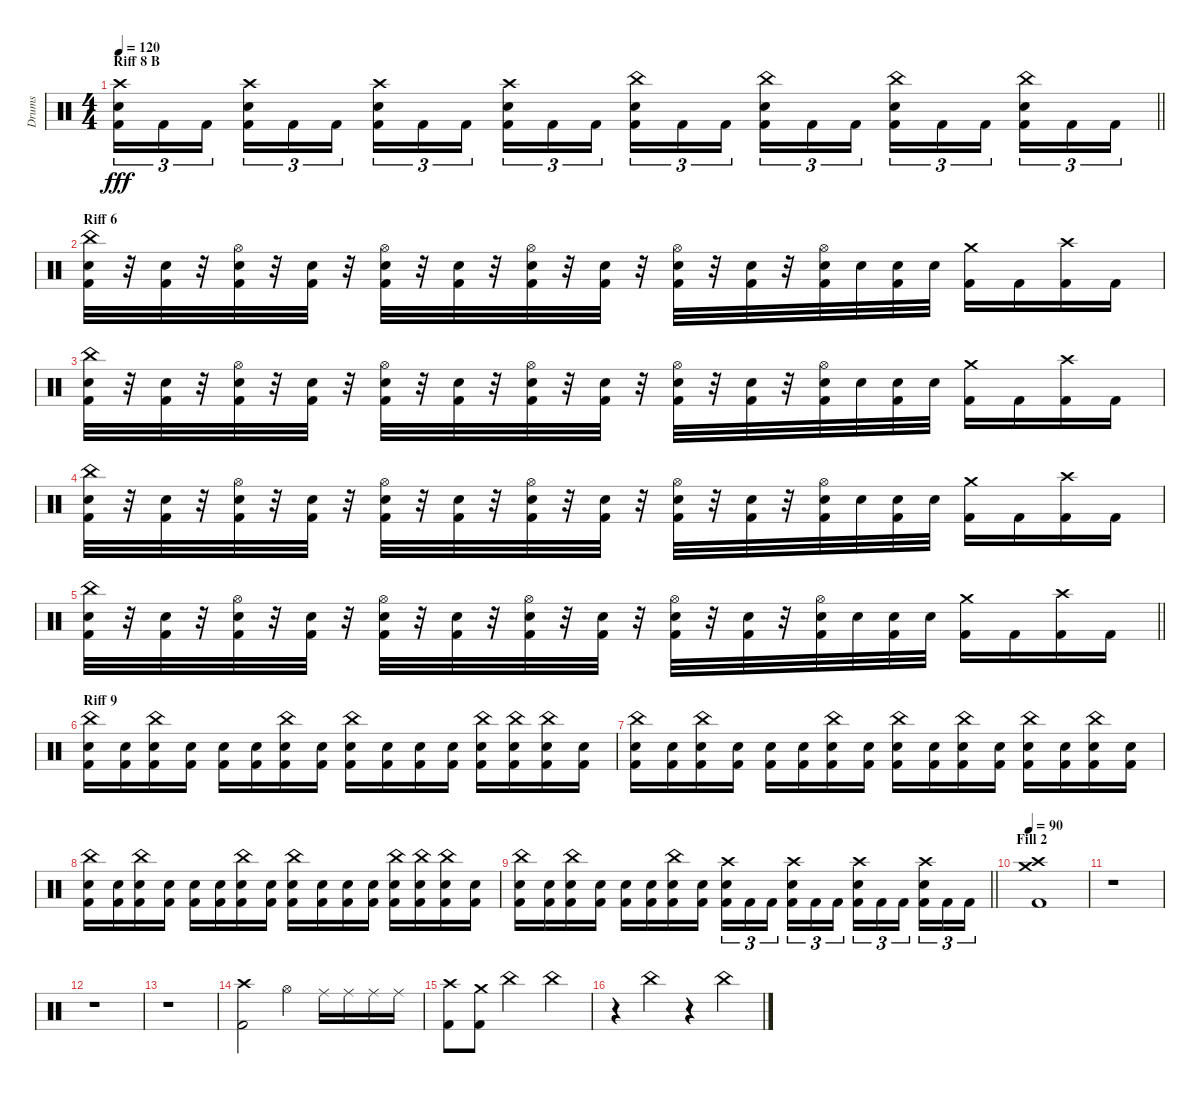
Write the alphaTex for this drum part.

\track ("Drums" "Drums") {instrument percussion}
\staff {score}
\articulation defaults
\ts (4 4)
\section ("" "Riff 8 B")
\tempo 120
\clef neutral
\barLineRight lightlight
\ks c
("Crash high (hit)" "Electric Snare (hit)" "Kick (hit) 2").16{tu (3 2) dy fff} "Kick (hit) 2".16{tu (3 2)} "Kick (hit) 2".16{tu (3 2)} ("Crash high (hit)" "Electric Snare (hit)" "Kick (hit) 2").16{tu (3 2)} "Kick (hit) 2".16{tu (3 2)} "Kick (hit) 2".16{tu (3 2)} ("Crash high (hit)" "Electric Snare (hit)" "Kick (hit) 2").16{tu (3 2)} "Kick (hit) 2".16{tu (3 2)} "Kick (hit) 2".16{tu (3 2)} ("Crash high (hit)" "Electric Snare (hit)" "Kick (hit) 2").16{tu (3 2)} "Kick (hit) 2".16{tu (3 2)} "Kick (hit) 2".16{tu (3 2)} ("China (hit)" "Electric Snare (hit)" "Kick (hit) 2").16{tu (3 2)} "Kick (hit) 2".16{tu (3 2)} "Kick (hit) 2".16{tu (3 2)} ("China (hit)" "Electric Snare (hit)" "Kick (hit) 2").16{tu (3 2)} "Kick (hit) 2".16{tu (3 2)} "Kick (hit) 2".16{tu (3 2)} ("China (hit)" "Electric Snare (hit)" "Kick (hit) 2").16{tu (3 2)} "Kick (hit) 2".16{tu (3 2)} "Kick (hit) 2".16{tu (3 2)} ("China (hit)" "Electric Snare (hit)" "Kick (hit) 2").16{tu (3 2)} "Kick (hit) 2".16{tu (3 2)} "Kick (hit) 2".16{tu (3 2)} |
\section ("" "Riff 6")
("China (hit)" "Electric Snare (hit)" "Kick (hit) 2").32 r.32 ("Electric Snare (hit)" "Kick (hit) 2").32 r.32 ("Hi-Hat (open)" "Electric Snare (hit)" "Kick (hit) 2").32 r.32 ("Electric Snare (hit)" "Kick (hit) 2").32 r.32 ("Hi-Hat (open)" "Electric Snare (hit)" "Kick (hit) 2").32 r.32 ("Electric Snare (hit)" "Kick (hit) 2").32 r.32 ("Hi-Hat (open)" "Electric Snare (hit)" "Kick (hit) 2").32 r.32 ("Electric Snare (hit)" "Kick (hit) 2").32 r.32 ("Hi-Hat (open)" "Electric Snare (hit)" "Kick (hit) 2").32 r.32 ("Electric Snare (hit)" "Kick (hit) 2").32 r.32 ("Hi-Hat (open)" "Electric Snare (hit)" "Kick (hit) 2").32 "Electric Snare (hit)".32 ("Electric Snare (hit)" "Kick (hit) 2").32 "Electric Snare (hit)".32 ("Crash medium (hit)" "Kick (hit) 2").16 "Kick (hit) 2".16 ("Crash high (hit)" "Kick (hit) 2").16 "Kick (hit) 2".16 |
("China (hit)" "Electric Snare (hit)" "Kick (hit) 2").32 r.32 ("Electric Snare (hit)" "Kick (hit) 2").32 r.32 ("Hi-Hat (open)" "Electric Snare (hit)" "Kick (hit) 2").32 r.32 ("Electric Snare (hit)" "Kick (hit) 2").32 r.32 ("Hi-Hat (open)" "Electric Snare (hit)" "Kick (hit) 2").32 r.32 ("Electric Snare (hit)" "Kick (hit) 2").32 r.32 ("Hi-Hat (open)" "Electric Snare (hit)" "Kick (hit) 2").32 r.32 ("Electric Snare (hit)" "Kick (hit) 2").32 r.32 ("Hi-Hat (open)" "Electric Snare (hit)" "Kick (hit) 2").32 r.32 ("Electric Snare (hit)" "Kick (hit) 2").32 r.32 ("Hi-Hat (open)" "Electric Snare (hit)" "Kick (hit) 2").32 "Electric Snare (hit)".32 ("Electric Snare (hit)" "Kick (hit) 2").32 "Electric Snare (hit)".32 ("Crash medium (hit)" "Kick (hit) 2").16 "Kick (hit) 2".16 ("Crash high (hit)" "Kick (hit) 2").16 "Kick (hit) 2".16 |
("China (hit)" "Electric Snare (hit)" "Kick (hit) 2").32 r.32 ("Electric Snare (hit)" "Kick (hit) 2").32 r.32 ("Hi-Hat (open)" "Electric Snare (hit)" "Kick (hit) 2").32 r.32 ("Electric Snare (hit)" "Kick (hit) 2").32 r.32 ("Hi-Hat (open)" "Electric Snare (hit)" "Kick (hit) 2").32 r.32 ("Electric Snare (hit)" "Kick (hit) 2").32 r.32 ("Hi-Hat (open)" "Electric Snare (hit)" "Kick (hit) 2").32 r.32 ("Electric Snare (hit)" "Kick (hit) 2").32 r.32 ("Hi-Hat (open)" "Electric Snare (hit)" "Kick (hit) 2").32 r.32 ("Electric Snare (hit)" "Kick (hit) 2").32 r.32 ("Hi-Hat (open)" "Electric Snare (hit)" "Kick (hit) 2").32 "Electric Snare (hit)".32 ("Electric Snare (hit)" "Kick (hit) 2").32 "Electric Snare (hit)".32 ("Crash medium (hit)" "Kick (hit) 2").16 "Kick (hit) 2".16 ("Crash high (hit)" "Kick (hit) 2").16 "Kick (hit) 2".16 |
\barLineRight lightlight
("China (hit)" "Electric Snare (hit)" "Kick (hit) 2").32 r.32 ("Electric Snare (hit)" "Kick (hit) 2").32 r.32 ("Hi-Hat (open)" "Electric Snare (hit)" "Kick (hit) 2").32 r.32 ("Electric Snare (hit)" "Kick (hit) 2").32 r.32 ("Hi-Hat (open)" "Electric Snare (hit)" "Kick (hit) 2").32 r.32 ("Electric Snare (hit)" "Kick (hit) 2").32 r.32 ("Hi-Hat (open)" "Electric Snare (hit)" "Kick (hit) 2").32 r.32 ("Electric Snare (hit)" "Kick (hit) 2").32 r.32 ("Hi-Hat (open)" "Electric Snare (hit)" "Kick (hit) 2").32 r.32 ("Electric Snare (hit)" "Kick (hit) 2").32 r.32 ("Hi-Hat (open)" "Electric Snare (hit)" "Kick (hit) 2").32 "Electric Snare (hit)".32 ("Electric Snare (hit)" "Kick (hit) 2").32 "Electric Snare (hit)".32 ("Crash medium (hit)" "Kick (hit) 2").16 "Kick (hit) 2".16 ("Crash high (hit)" "Kick (hit) 2").16 "Kick (hit) 2".16 |
\section ("" "Riff 9")
("China (hit)" "Electric Snare (hit)" "Kick (hit) 2").16 ("Electric Snare (hit)" "Kick (hit) 2").16 ("China (hit)" "Electric Snare (hit)" "Kick (hit) 2").16 ("Electric Snare (hit)" "Kick (hit) 2").16 ("Electric Snare (hit)" "Kick (hit) 2").16 ("Electric Snare (hit)" "Kick (hit) 2").16 ("China (hit)" "Electric Snare (hit)" "Kick (hit) 2").16 ("Electric Snare (hit)" "Kick (hit) 2").16 ("China (hit)" "Electric Snare (hit)" "Kick (hit) 2").16 ("Electric Snare (hit)" "Kick (hit) 2").16 ("Electric Snare (hit)" "Kick (hit) 2").16 ("Electric Snare (hit)" "Kick (hit) 2").16 ("China (hit)" "Electric Snare (hit)" "Kick (hit) 2").16 ("China (hit)" "Electric Snare (hit)" "Kick (hit) 2").16 ("China (hit)" "Electric Snare (hit)" "Kick (hit) 2").16 ("Electric Snare (hit)" "Kick (hit) 2").16 |
("China (hit)" "Electric Snare (hit)" "Kick (hit) 2").16 ("Electric Snare (hit)" "Kick (hit) 2").16 ("China (hit)" "Electric Snare (hit)" "Kick (hit) 2").16 ("Electric Snare (hit)" "Kick (hit) 2").16 ("Electric Snare (hit)" "Kick (hit) 2").16 ("Electric Snare (hit)" "Kick (hit) 2").16 ("China (hit)" "Electric Snare (hit)" "Kick (hit) 2").16 ("Electric Snare (hit)" "Kick (hit) 2").16 ("China (hit)" "Electric Snare (hit)" "Kick (hit) 2").16 ("Electric Snare (hit)" "Kick (hit) 2").16 ("China (hit)" "Electric Snare (hit)" "Kick (hit) 2").16 ("Electric Snare (hit)" "Kick (hit) 2").16 ("China (hit)" "Electric Snare (hit)" "Kick (hit) 2").16 ("Electric Snare (hit)" "Kick (hit) 2").16 ("China (hit)" "Electric Snare (hit)" "Kick (hit) 2").16 ("Electric Snare (hit)" "Kick (hit) 2").16 |
("China (hit)" "Electric Snare (hit)" "Kick (hit) 2").16 ("Electric Snare (hit)" "Kick (hit) 2").16 ("China (hit)" "Electric Snare (hit)" "Kick (hit) 2").16 ("Electric Snare (hit)" "Kick (hit) 2").16 ("Electric Snare (hit)" "Kick (hit) 2").16 ("Electric Snare (hit)" "Kick (hit) 2").16 ("China (hit)" "Electric Snare (hit)" "Kick (hit) 2").16 ("Electric Snare (hit)" "Kick (hit) 2").16 ("China (hit)" "Electric Snare (hit)" "Kick (hit) 2").16 ("Electric Snare (hit)" "Kick (hit) 2").16 ("Electric Snare (hit)" "Kick (hit) 2").16 ("Electric Snare (hit)" "Kick (hit) 2").16 ("China (hit)" "Electric Snare (hit)" "Kick (hit) 2").16 ("China (hit)" "Electric Snare (hit)" "Kick (hit) 2").16 ("China (hit)" "Electric Snare (hit)" "Kick (hit) 2").16 ("Electric Snare (hit)" "Kick (hit) 2").16 |
\barLineRight lightlight
("China (hit)" "Electric Snare (hit)" "Kick (hit) 2").16 ("Electric Snare (hit)" "Kick (hit) 2").16 ("China (hit)" "Electric Snare (hit)" "Kick (hit) 2").16 ("Electric Snare (hit)" "Kick (hit) 2").16 ("Electric Snare (hit)" "Kick (hit) 2").16 ("Electric Snare (hit)" "Kick (hit) 2").16 ("China (hit)" "Electric Snare (hit)" "Kick (hit) 2").16 ("Electric Snare (hit)" "Kick (hit) 2").16 ("Crash high (hit)" "Electric Snare (hit)" "Kick (hit) 2").16{tu (3 2)} "Kick (hit) 2".16{tu (3 2)} "Kick (hit) 2".16{tu (3 2)} ("Crash high (hit)" "Electric Snare (hit)" "Kick (hit) 2").16{tu (3 2)} "Kick (hit) 2".16{tu (3 2)} "Kick (hit) 2".16{tu (3 2)} ("Crash high (hit)" "Electric Snare (hit)" "Kick (hit) 2").16{tu (3 2)} "Kick (hit) 2".16{tu (3 2)} "Kick (hit) 2".16{tu (3 2)} ("Crash high (hit)" "Electric Snare (hit)" "Kick (hit) 2").16{tu (3 2)} "Kick (hit) 2".16{tu (3 2)} "Kick (hit) 2".16{tu (3 2)} |
\section ("" "Fill 2")
\tempo 90
("Crash high (hit)" "Crash medium (hit)" "Kick (hit) 2").1 |
r.1 |
r.1 |
r.1 |
("Crash high (hit)" "Kick (hit) 2").2 "Hi-Hat (open)".4 "Ride (middle)".16 "Ride (middle)".16 "Ride (middle)".16 "Ride (middle)".16 |
("Crash high (hit)" "Kick (hit) 2").8 ("Crash medium (hit)" "Kick (hit) 2").8 "China (hit)".2 "China (hit)".4 |
r.4 "China (hit)".4 r.4 "China (hit)".4
